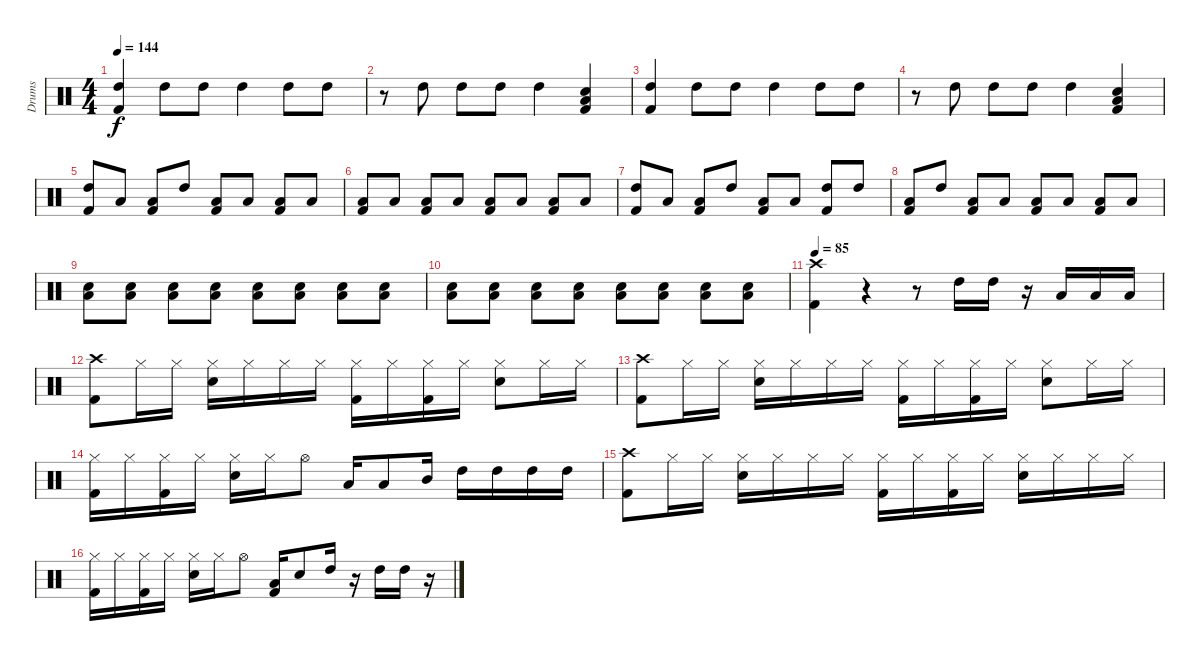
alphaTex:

\track ("Drums" "Drums") {instrument percussion}
\staff {score}
\articulation defaults
\ts (4 4)
\tempo 144
\clef neutral
\ks c
("High Tom (hit)" "Kick (hit) 2").4{dy f} "High Tom (hit)".8 "High Tom (hit)".8 "High Tom (hit)".4 "High Tom (hit)".8 "High Tom (hit)".8 |
r.8 "High Tom (hit)".8 "High Tom (hit)".8 "High Tom (hit)".8 "High Tom (hit)".4 ("Snare (hit) 2" "Low Tom (hit)" "Kick (hit) 2").4 |
("High Tom (hit)" "Kick (hit) 2").4 "High Tom (hit)".8 "High Tom (hit)".8 "High Tom (hit)".4 "High Tom (hit)".8 "High Tom (hit)".8 |
r.8 "High Tom (hit)".8 "High Tom (hit)".8 "High Tom (hit)".8 "High Tom (hit)".4 ("Snare (hit) 2" "Low Tom (hit)" "Kick (hit) 2").4 |
("High Tom (hit)" "Kick (hit) 2").8 "Low Tom (hit)".8 ("Low Tom (hit)" "Kick (hit) 2").8 "High Tom (hit)".8 ("Low Tom (hit)" "Kick (hit) 2").8 "Low Tom (hit)".8 ("Low Tom (hit)" "Kick (hit) 2").8 "Low Tom (hit)".8 |
("Low Tom (hit)" "Kick (hit) 2").8 "Low Tom (hit)".8 ("Low Tom (hit)" "Kick (hit) 2").8 "Low Tom (hit)".8 ("Low Tom (hit)" "Kick (hit) 2").8 "Low Tom (hit)".8 ("Low Tom (hit)" "Kick (hit) 2").8 "Low Tom (hit)".8 |
("High Tom (hit)" "Kick (hit) 2").8 "Low Tom (hit)".8 ("Low Tom (hit)" "Kick (hit) 2").8 "High Tom (hit)".8 ("Low Tom (hit)" "Kick (hit) 2").8 "Low Tom (hit)".8 ("High Tom (hit)" "Kick (hit) 2").8 "High Tom (hit)".8 |
("Low Tom (hit)" "Kick (hit) 2").8 "High Tom (hit)".8 ("Low Tom (hit)" "Kick (hit) 2").8 "Low Tom (hit)".8 ("Low Tom (hit)" "Kick (hit) 2").8 "Low Tom (hit)".8 ("Low Tom (hit)" "Kick (hit) 2").8 "Low Tom (hit)".8 |
("Snare (hit) 2" "Low Tom (hit)").8{volume 13} ("Snare (hit) 2" "Low Tom (hit)").8 ("Snare (hit) 2" "Low Tom (hit)").8 ("Snare (hit) 2" "Low Tom (hit)").8 ("Snare (hit) 2" "Low Tom (hit)").8 ("Snare (hit) 2" "Low Tom (hit)").8 ("Snare (hit) 2" "Low Tom (hit)").8 ("Snare (hit) 2" "Low Tom (hit)").8 |
("Snare (hit) 2" "Low Tom (hit)").8 ("Snare (hit) 2" "Low Tom (hit)").8 ("Snare (hit) 2" "Low Tom (hit)").8 ("Snare (hit) 2" "Low Tom (hit)").8 ("Snare (hit) 2" "Low Tom (hit)").8 ("Snare (hit) 2" "Low Tom (hit)").8 ("Snare (hit) 2" "Low Tom (hit)").8 ("Snare (hit) 2" "Low Tom (hit)").8 |
\tempo 85
("Crash high (hit)" "Kick (hit) 2").4 r.4 r.8 "High Tom (hit)".16 "High Tom (hit)".16 r.16 "Low Tom (hit)".16 "Low Tom (hit)".16 "Low Tom (hit)".16 |
("Crash high (hit)" "Kick (hit) 2").8 "Hi-Hat (closed)".16 "Hi-Hat (closed)".16 ("Hi-Hat (closed)" "Snare (hit) 2").16 "Hi-Hat (closed)".16 "Hi-Hat (closed)".16 "Hi-Hat (closed)".16 ("Hi-Hat (closed)" "Kick (hit) 2").16 "Hi-Hat (closed)".16 ("Hi-Hat (closed)" "Kick (hit) 2").16 "Hi-Hat (closed)".16 ("Hi-Hat (closed)" "Snare (hit) 2").8 "Hi-Hat (closed)".16 "Hi-Hat (closed)".16 |
("Crash high (hit)" "Kick (hit) 2").8 "Hi-Hat (closed)".16 "Hi-Hat (closed)".16 ("Hi-Hat (closed)" "Snare (hit) 2").16 "Hi-Hat (closed)".16 "Hi-Hat (closed)".16 "Hi-Hat (closed)".16 ("Hi-Hat (closed)" "Kick (hit) 2").16 "Hi-Hat (closed)".16 ("Hi-Hat (closed)" "Kick (hit) 2").16 "Hi-Hat (closed)".16 ("Hi-Hat (closed)" "Snare (hit) 2").8 "Hi-Hat (closed)".16 "Hi-Hat (closed)".16 |
("Hi-Hat (closed)" "Kick (hit) 2").16 "Hi-Hat (closed)".16 ("Hi-Hat (closed)" "Kick (hit) 2").16 "Hi-Hat (closed)".16 ("Hi-Hat (closed)" "Snare (hit) 2").16 "Hi-Hat (closed)".16 "Hi-Hat (open)".8 "Low Tom (hit)".16 "Low Tom (hit)".8 "Mid Tom (hit)".16 "High Tom (hit)".16 "High Tom (hit)".16 "High Tom (hit)".16 "High Tom (hit)".16 |
("Crash high (hit)" "Kick (hit) 2").8 "Hi-Hat (closed)".16 "Hi-Hat (closed)".16 ("Hi-Hat (closed)" "Snare (hit) 2").16 "Hi-Hat (closed)".16 "Hi-Hat (closed)".16 "Hi-Hat (closed)".16 ("Hi-Hat (closed)" "Kick (hit) 2").16 "Hi-Hat (closed)".16 ("Hi-Hat (closed)" "Kick (hit) 2").16 "Hi-Hat (closed)".16 ("Hi-Hat (closed)" "Snare (hit) 2").16 "Hi-Hat (closed)".16 "Hi-Hat (closed)".16 "Hi-Hat (closed)".16 |
("Hi-Hat (closed)" "Kick (hit) 2").16 "Hi-Hat (closed)".16 ("Hi-Hat (closed)" "Kick (hit) 2").16 "Hi-Hat (closed)".16 ("Hi-Hat (closed)" "Snare (hit) 2").16 "Hi-Hat (closed)".16 "Hi-Hat (open)".8 ("Low Tom (hit)" "Kick (hit) 2").16 "Snare (hit) 2".8 "High Tom (hit)".16 r.16 "High Tom (hit)".16 "High Tom (hit)".16 r.16
